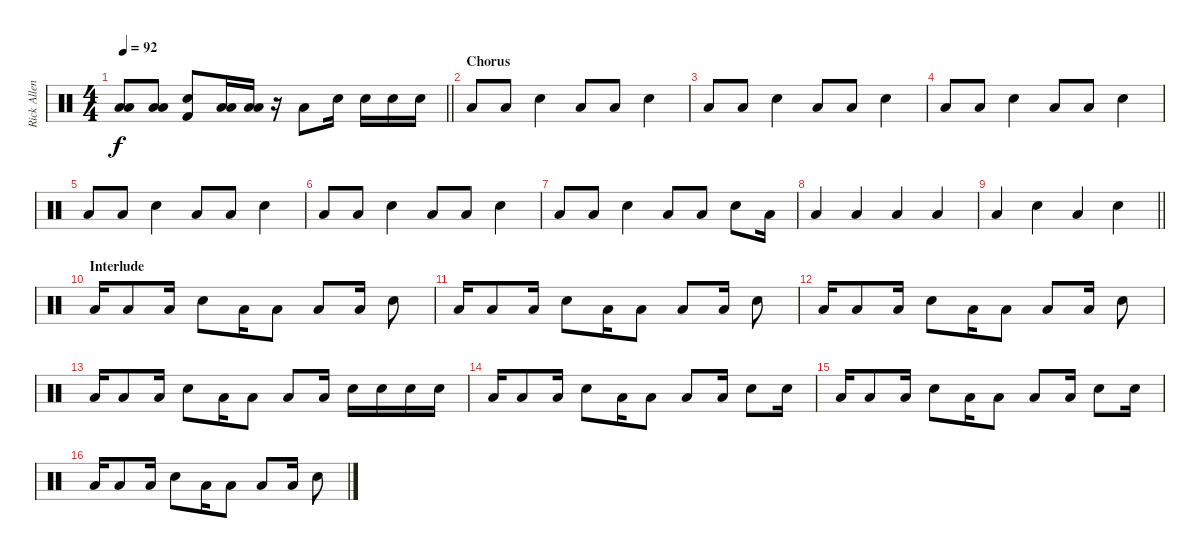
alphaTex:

\track ("Rick Allen" "Rick Allen") {instrument percussion}
\staff {score}
\articulation defaults
\ts (4 4)
\tempo 92
\clef neutral
\barLineRight lightlight
\ks c
("Low Floor Tom (hit)" "Low Floor Tom (hit)").8{dy f} ("Low Floor Tom (hit)" "Low Floor Tom (hit)").8 ("Snare (hit) 2" "Kick (hit) 2").8 ("Low Floor Tom (hit)" "Low Floor Tom (hit)").16 ("Low Floor Tom (hit)" "Low Floor Tom (hit)").16 r.16 "Low Floor Tom (hit)".8 "Snare (hit) 2".16 "Snare (hit) 2".16 "Snare (hit) 2".16 "Snare (hit) 2".16 |
\section ("" "Chorus")
"Low Floor Tom (hit)".8 "Low Floor Tom (hit)".8 "Snare (hit) 2".4 "Low Floor Tom (hit)".8 "Low Floor Tom (hit)".8 "Snare (hit) 2".4 |
"Low Floor Tom (hit)".8 "Low Floor Tom (hit)".8 "Snare (hit) 2".4 "Low Floor Tom (hit)".8 "Low Floor Tom (hit)".8 "Snare (hit) 2".4 |
"Low Floor Tom (hit)".8 "Low Floor Tom (hit)".8 "Snare (hit) 2".4 "Low Floor Tom (hit)".8 "Low Floor Tom (hit)".8 "Snare (hit) 2".4 |
"Low Floor Tom (hit)".8 "Low Floor Tom (hit)".8 "Snare (hit) 2".4 "Low Floor Tom (hit)".8 "Low Floor Tom (hit)".8 "Snare (hit) 2".4 |
"Low Floor Tom (hit)".8 "Low Floor Tom (hit)".8 "Snare (hit) 2".4 "Low Floor Tom (hit)".8 "Low Floor Tom (hit)".8 "Snare (hit) 2".4 |
"Low Floor Tom (hit)".8 "Low Floor Tom (hit)".8 "Snare (hit) 2".4 "Low Floor Tom (hit)".8 "Low Floor Tom (hit)".8 "Snare (hit) 2".8 "Low Floor Tom (hit)".16 |
"Low Floor Tom (hit)".4 "Low Floor Tom (hit)".4 "Low Floor Tom (hit)".4 "Low Floor Tom (hit)".4 |
\barLineRight lightlight "Low Floor Tom (hit)".4 "Snare (hit) 2".4 "Low Floor Tom (hit)".4 "Snare (hit) 2".4
|
\section ("" "Interlude")
"Low Floor Tom (hit)".16 "Low Floor Tom (hit)".8 "Low Floor Tom (hit)".16 "Snare (hit) 2".8 "Low Floor Tom (hit)".16 "Low Floor Tom (hit)".8 "Low Floor Tom (hit)".8 "Low Floor Tom (hit)".16 "Snare (hit) 2".8 |
"Low Floor Tom (hit)".16 "Low Floor Tom (hit)".8 "Low Floor Tom (hit)".16 "Snare (hit) 2".8 "Low Floor Tom (hit)".16 "Low Floor Tom (hit)".8 "Low Floor Tom (hit)".8 "Low Floor Tom (hit)".16 "Snare (hit) 2".8 |
"Low Floor Tom (hit)".16 "Low Floor Tom (hit)".8 "Low Floor Tom (hit)".16 "Snare (hit) 2".8 "Low Floor Tom (hit)".16 "Low Floor Tom (hit)".8 "Low Floor Tom (hit)".8 "Low Floor Tom (hit)".16 "Snare (hit) 2".8 |
"Low Floor Tom (hit)".16 "Low Floor Tom (hit)".8 "Low Floor Tom (hit)".16 "Snare (hit) 2".8 "Low Floor Tom (hit)".16 "Low Floor Tom (hit)".8 "Low Floor Tom (hit)".8 "Low Floor Tom (hit)".16 "Snare (hit) 2".16 "Snare (hit) 2".16 "Snare (hit) 2".16 "Snare (hit) 2".16 |
"Low Floor Tom (hit)".16 "Low Floor Tom (hit)".8 "Low Floor Tom (hit)".16 "Snare (hit) 2".8 "Low Floor Tom (hit)".16 "Low Floor Tom (hit)".8 "Low Floor Tom (hit)".8 "Low Floor Tom (hit)".16 "Snare (hit) 2".8 "Snare (hit) 2".16 |
"Low Floor Tom (hit)".16 "Low Floor Tom (hit)".8 "Low Floor Tom (hit)".16 "Snare (hit) 2".8 "Low Floor Tom (hit)".16 "Low Floor Tom (hit)".8 "Low Floor Tom (hit)".8 "Low Floor Tom (hit)".16 "Snare (hit) 2".8 "Snare (hit) 2".16 |
"Low Floor Tom (hit)".16 "Low Floor Tom (hit)".8 "Low Floor Tom (hit)".16 "Snare (hit) 2".8 "Low Floor Tom (hit)".16 "Low Floor Tom (hit)".8 "Low Floor Tom (hit)".8 "Low Floor Tom (hit)".16 "Snare (hit) 2".8
